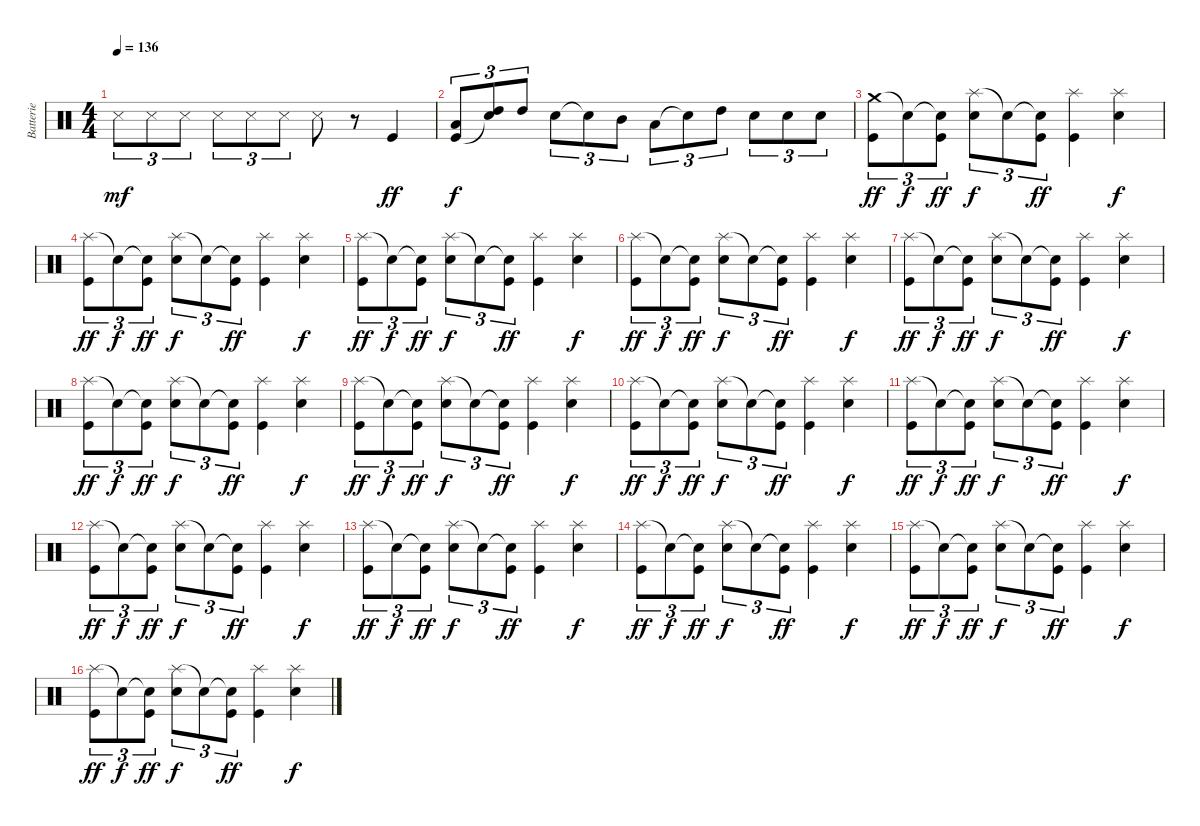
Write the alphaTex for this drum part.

\track ("Batterie" "Batterie") {instrument percussion}
\staff {score}
\articulation defaults
\ts (4 4)
\tempo 136
\clef neutral
\ks c "Snare (side stick) 3".8{tu (3 2) dy mf} "Snare (side stick) 3".8{tu (3 2)} "Snare (side stick) 3".8{tu (3 2)} "Snare (side stick) 3".8{tu (3 2)} "Snare (side stick) 3".8{tu (3 2)} "Snare (side stick) 3".8{tu (3 2)} "Snare (side stick) 3".8
r.8 "Kick (hit)".4{dy ff} |
("Low Tom (hit)" "Kick (hit)").8{tu (3 2) dy f} ("High Tom (hit)" "Snare (hit)"{t}).8{tu (3 2)} "High Tom (hit)".8{tu (3 2)} "Snare (hit) 2".8{tu (3 2)} "Snare (hit)"{t}.8{tu (3 2)} "Mid Tom (hit)".8{tu (3 2)} "Low Tom (hit)".8{tu (3 2)} "Snare (hit)"{t}.8{tu (3 2)} "High Tom (hit)".8{tu (3 2)} "Snare (hit) 2".8{tu (3 2)} "Snare (hit) 2".8{tu (3 2)} "Snare (hit) 2".8{tu (3 2)} |
("Crash medium (hit)" "Kick (hit)").8{tu (3 2) dy ff} "Snare (hit)"{t}.8{tu (3 2) dy f} ("Snare (hit)"{t} "Kick (hit)").8{tu (3 2) dy ff} ("Splash (hit)" "Snare (hit) 2").8{tu (3 2) dy f} "Snare (hit)"{t}.8{tu (3 2)} ("Snare (hit)"{t} "Kick (hit)").8{tu (3 2) dy ff} ("Splash (hit)" "Kick (hit)").4 ("Splash (hit)" "Snare (hit) 2").4{dy f} |
("Splash (hit)" "Kick (hit)").8{tu (3 2) dy ff} "Snare (hit)"{t}.8{tu (3 2) dy f} ("Snare (hit)"{t} "Kick (hit)").8{tu (3 2) dy ff} ("Splash (hit)" "Snare (hit) 2").8{tu (3 2) dy f} "Snare (hit)"{t}.8{tu (3 2)} ("Snare (hit)"{t} "Kick (hit)").8{tu (3 2) dy ff} ("Splash (hit)" "Kick (hit)").4 ("Splash (hit)" "Snare (hit) 2").4{dy f} |
("Splash (hit)" "Kick (hit)").8{tu (3 2) dy ff} "Snare (hit)"{t}.8{tu (3 2) dy f} ("Snare (hit)"{t} "Kick (hit)").8{tu (3 2) dy ff} ("Splash (hit)" "Snare (hit) 2").8{tu (3 2) dy f} "Snare (hit)"{t}.8{tu (3 2)} ("Snare (hit)"{t} "Kick (hit)").8{tu (3 2) dy ff} ("Splash (hit)" "Kick (hit)").4 ("Splash (hit)" "Snare (hit) 2").4{dy f} |
("Splash (hit)" "Kick (hit)").8{tu (3 2) dy ff} "Snare (hit)"{t}.8{tu (3 2) dy f} ("Snare (hit)"{t} "Kick (hit)").8{tu (3 2) dy ff} ("Splash (hit)" "Snare (hit) 2").8{tu (3 2) dy f} "Snare (hit)"{t}.8{tu (3 2)} ("Snare (hit)"{t} "Kick (hit)").8{tu (3 2) dy ff} ("Splash (hit)" "Kick (hit)").4 ("Splash (hit)" "Snare (hit) 2").4{dy f} |
("Splash (hit)" "Kick (hit)").8{tu (3 2) dy ff} "Snare (hit)"{t}.8{tu (3 2) dy f} ("Snare (hit)"{t} "Kick (hit)").8{tu (3 2) dy ff} ("Splash (hit)" "Snare (hit) 2").8{tu (3 2) dy f} "Snare (hit)"{t}.8{tu (3 2)} ("Snare (hit)"{t} "Kick (hit)").8{tu (3 2) dy ff} ("Splash (hit)" "Kick (hit)").4 ("Splash (hit)" "Snare (hit) 2").4{dy f} |
("Splash (hit)" "Kick (hit)").8{tu (3 2) dy ff} "Snare (hit)"{t}.8{tu (3 2) dy f} ("Snare (hit)"{t} "Kick (hit)").8{tu (3 2) dy ff} ("Splash (hit)" "Snare (hit) 2").8{tu (3 2) dy f} "Snare (hit)"{t}.8{tu (3 2)} ("Snare (hit)"{t} "Kick (hit)").8{tu (3 2) dy ff} ("Splash (hit)" "Kick (hit)").4 ("Splash (hit)" "Snare (hit) 2").4{dy f} |
("Splash (hit)" "Kick (hit)").8{tu (3 2) dy ff} "Snare (hit)"{t}.8{tu (3 2) dy f} ("Snare (hit)"{t} "Kick (hit)").8{tu (3 2) dy ff} ("Splash (hit)" "Snare (hit) 2").8{tu (3 2) dy f} "Snare (hit)"{t}.8{tu (3 2)} ("Snare (hit)"{t} "Kick (hit)").8{tu (3 2) dy ff} ("Splash (hit)" "Kick (hit)").4 ("Splash (hit)" "Snare (hit) 2").4{dy f} |
("Splash (hit)" "Kick (hit)").8{tu (3 2) dy ff} "Snare (hit)"{t}.8{tu (3 2) dy f} ("Snare (hit)"{t} "Kick (hit)").8{tu (3 2) dy ff} ("Splash (hit)" "Snare (hit) 2").8{tu (3 2) dy f} "Snare (hit)"{t}.8{tu (3 2)} ("Snare (hit)"{t} "Kick (hit)").8{tu (3 2) dy ff} ("Splash (hit)" "Kick (hit)").4 ("Splash (hit)" "Snare (hit) 2").4{dy f} |
("Splash (hit)" "Kick (hit)").8{tu (3 2) dy ff} "Snare (hit)"{t}.8{tu (3 2) dy f} ("Snare (hit)"{t} "Kick (hit)").8{tu (3 2) dy ff} ("Splash (hit)" "Snare (hit) 2").8{tu (3 2) dy f} "Snare (hit)"{t}.8{tu (3 2)} ("Snare (hit)"{t} "Kick (hit)").8{tu (3 2) dy ff} ("Splash (hit)" "Kick (hit)").4 ("Splash (hit)" "Snare (hit) 2").4{dy f} |
("Splash (hit)" "Kick (hit)").8{tu (3 2) dy ff} "Snare (hit)"{t}.8{tu (3 2) dy f} ("Snare (hit)"{t} "Kick (hit)").8{tu (3 2) dy ff} ("Splash (hit)" "Snare (hit) 2").8{tu (3 2) dy f} "Snare (hit)"{t}.8{tu (3 2)} ("Snare (hit)"{t} "Kick (hit)").8{tu (3 2) dy ff} ("Splash (hit)" "Kick (hit)").4 ("Splash (hit)" "Snare (hit) 2").4{dy f} |
("Splash (hit)" "Kick (hit)").8{tu (3 2) dy ff} "Snare (hit)"{t}.8{tu (3 2) dy f} ("Snare (hit)"{t} "Kick (hit)").8{tu (3 2) dy ff} ("Splash (hit)" "Snare (hit) 2").8{tu (3 2) dy f} "Snare (hit)"{t}.8{tu (3 2)} ("Snare (hit)"{t} "Kick (hit)").8{tu (3 2) dy ff} ("Splash (hit)" "Kick (hit)").4 ("Splash (hit)" "Snare (hit) 2").4{dy f} |
("Splash (hit)" "Kick (hit)").8{tu (3 2) dy ff} "Snare (hit)"{t}.8{tu (3 2) dy f} ("Snare (hit)"{t} "Kick (hit)").8{tu (3 2) dy ff} ("Splash (hit)" "Snare (hit) 2").8{tu (3 2) dy f} "Snare (hit)"{t}.8{tu (3 2)} ("Snare (hit)"{t} "Kick (hit)").8{tu (3 2) dy ff} ("Splash (hit)" "Kick (hit)").4 ("Splash (hit)" "Snare (hit) 2").4{dy f} |
("Splash (hit)" "Kick (hit)").8{tu (3 2) dy ff} "Snare (hit)"{t}.8{tu (3 2) dy f} ("Snare (hit)"{t} "Kick (hit)").8{tu (3 2) dy ff} ("Splash (hit)" "Snare (hit) 2").8{tu (3 2) dy f} "Snare (hit)"{t}.8{tu (3 2)} ("Snare (hit)"{t} "Kick (hit)").8{tu (3 2) dy ff} ("Splash (hit)" "Kick (hit)").4 ("Splash (hit)" "Snare (hit) 2").4{dy f} |
("Splash (hit)" "Kick (hit)").8{tu (3 2) dy ff} "Snare (hit)"{t}.8{tu (3 2) dy f} ("Snare (hit)"{t} "Kick (hit)").8{tu (3 2) dy ff} ("Splash (hit)" "Snare (hit) 2").8{tu (3 2) dy f} "Snare (hit)"{t}.8{tu (3 2)} ("Snare (hit)"{t} "Kick (hit)").8{tu (3 2) dy ff} ("Splash (hit)" "Kick (hit)").4 ("Splash (hit)" "Snare (hit) 2").4{dy f}
